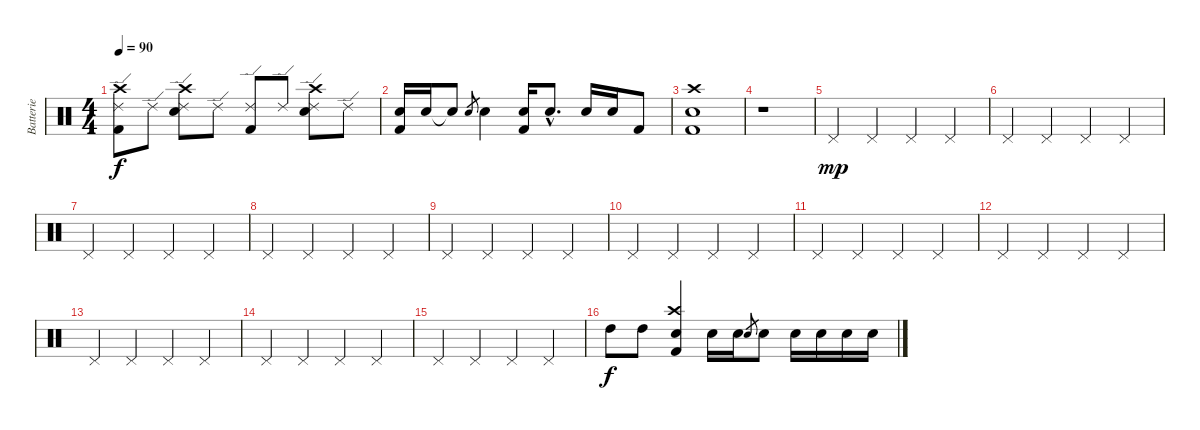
\track ("Batterie" "Batterie") {instrument percussion}
\staff {score}
\articulation defaults
\ts (4 4)
\tempo 90
\clef neutral
\ks c
("Ride (edge) 2" "Kick (hit) 2" "Crash high (hit)").8{dy f} "Ride (edge) 2".8 ("Ride (edge) 2" "Electric Snare (hit)" "Crash high (hit)").8 "Ride (edge) 2".8 ("Ride (edge) 2" "Kick (hit) 2").8 "Ride (edge) 2".8 ("Ride (edge) 2" "Electric Snare (hit)" "Crash high (hit)").8 "Ride (edge) 2".8 |
("Kick (hit) 2" "Electric Snare (hit)").16 "Electric Snare (hit)".16 "Snare (hit)"{t}.8 "Electric Snare (hit)".8{gr} "Electric Snare (hit)".4 ("Kick (hit) 2" "Electric Snare (hit)").16 "Electric Snare (hit)"{hac}.8{d} "Electric Snare (hit)".16 "Electric Snare (hit)".16 "Kick (hit) 2".8 |
("Kick (hit) 2" "Electric Snare (hit)" "Crash high (hit)").1 |
r.1 |
"Pedal Hi-Hat (hit)".4{dy mp} "Pedal Hi-Hat (hit)".4 "Pedal Hi-Hat (hit)".4 "Pedal Hi-Hat (hit)".4 |
"Pedal Hi-Hat (hit)".4 "Pedal Hi-Hat (hit)".4 "Pedal Hi-Hat (hit)".4 "Pedal Hi-Hat (hit)".4 |
"Pedal Hi-Hat (hit)".4 "Pedal Hi-Hat (hit)".4 "Pedal Hi-Hat (hit)".4 "Pedal Hi-Hat (hit)".4 |
"Pedal Hi-Hat (hit)".4 "Pedal Hi-Hat (hit)".4 "Pedal Hi-Hat (hit)".4 "Pedal Hi-Hat (hit)".4 |
"Pedal Hi-Hat (hit)".4 "Pedal Hi-Hat (hit)".4 "Pedal Hi-Hat (hit)".4 "Pedal Hi-Hat (hit)".4 |
"Pedal Hi-Hat (hit)".4 "Pedal Hi-Hat (hit)".4 "Pedal Hi-Hat (hit)".4 "Pedal Hi-Hat (hit)".4 |
"Pedal Hi-Hat (hit)".4 "Pedal Hi-Hat (hit)".4 "Pedal Hi-Hat (hit)".4 "Pedal Hi-Hat (hit)".4 |
"Pedal Hi-Hat (hit)".4 "Pedal Hi-Hat (hit)".4 "Pedal Hi-Hat (hit)".4 "Pedal Hi-Hat (hit)".4 |
"Pedal Hi-Hat (hit)".4 "Pedal Hi-Hat (hit)".4 "Pedal Hi-Hat (hit)".4 "Pedal Hi-Hat (hit)".4 |
"Pedal Hi-Hat (hit)".4 "Pedal Hi-Hat (hit)".4 "Pedal Hi-Hat (hit)".4 "Pedal Hi-Hat (hit)".4 |
"Pedal Hi-Hat (hit)".4 "Pedal Hi-Hat (hit)".4 "Pedal Hi-Hat (hit)".4 "Pedal Hi-Hat (hit)".4 |
"High Tom (hit)".8{dy f} "High Tom (hit)".8 ("Kick (hit) 2" "Electric Snare (hit)" "Crash high (hit)").4 "Electric Snare (hit)".16 "Electric Snare (hit)".16 "Electric Snare (hit)".8{gr} "Electric Snare (hit)".8 "Electric Snare (hit)".16 "Electric Snare (hit)".16 "Electric Snare (hit)".16 "Electric Snare (hit)".16
